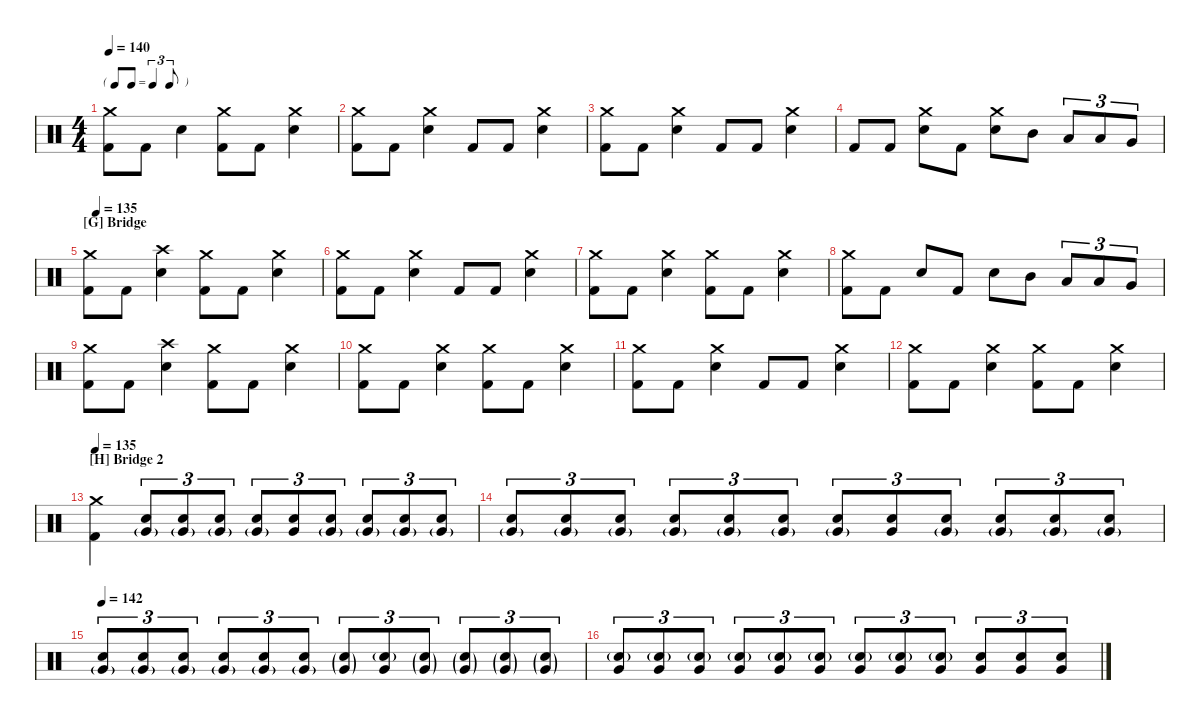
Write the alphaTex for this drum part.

\defaultSystemsLayout 4
\hideDynamics
\bracketExtendMode nobrackets
\singleTrackTrackNamePolicy hidden
\multiTrackTrackNamePolicy hidden
\firstSystemTrackNameMode fullname
\firstSystemTrackNameOrientation horizontal
\otherSystemsTrackNameOrientation horizontal
\track ("Drum" "Drums") {instrument percussion}
\staff {score}
\articulation defaults
\ts (4 4)
\tf triplet8th
\scale
0.186874
\tempo 140
\accidentals auto
\clef neutral
\ottava regular
\simile none
\scale
0.225443
\ks c
("Kick (hit) 2" "Crash medium (hit)").8{dy f beam Down} "Kick (hit) 2".8{beam Down} "Snare (hit) 2".4{beam Down} ("Kick (hit) 2" "Crash medium (hit)").8{beam Down} "Kick (hit) 2".8{beam Down} ("Snare (hit) 2" "Crash medium (hit)").4{beam Down} |
\scale
0.266963
\scale
0.225443 ("Kick (hit) 2" "Crash medium (hit)").8{beam Down} "Kick (hit) 2".8{beam Down} ("Snare (hit) 2" "Crash medium (hit)").4{beam Down} "Kick (hit) 2".8{beam Up} "Kick (hit) 2".8{beam Up} ("Snare (hit) 2" "Crash medium (hit)").4{beam Down} |
\scale
0.279199
\scale
0.225443 ("Kick (hit) 2" "Crash medium (hit)").8{beam Down} "Kick (hit) 2".8{beam Down} ("Snare (hit) 2" "Crash medium (hit)").4{beam Down} "Kick (hit) 2".8{beam Up} "Kick (hit) 2".8{beam Up} ("Snare (hit) 2" "Crash medium (hit)").4{beam Down} |
\scale
0.266963
\scale
0.323671 "Kick (hit) 2".8{beam Up} "Kick (hit) 2".8{beam Up} ("Snare (hit) 2" "Crash medium (hit)").8{beam Down} "Kick (hit) 2".8{beam Down} ("Snare (hit) 2" "Crash medium (hit)").8{beam Down} "Mid Tom (hit)".8{beam Down} "Low Tom (hit)".8{tu (3 2) beam Up} "Low Tom (hit)".8{tu (3 2) beam Up} "Very Low Tom (hit)".8{tu (3 2) beam Up} |
\section ("G" "Bridge")
\scale
0.268041
\tempo (135 0.03125)
\scale
0.225443 ("Kick (hit) 2" "Crash medium (hit)").8{beam Down} "Kick (hit) 2".8{beam Down} ("Snare (hit) 2" "Crash high (hit)").4{beam Down} ("Kick (hit) 2" "Crash medium (hit)").8{beam Down} "Kick (hit) 2".8{beam Down} ("Snare (hit) 2" "Crash medium (hit)").4{beam Down} |
\scale
0.346392
\scale
0.225443 ("Kick (hit) 2" "Crash medium (hit)").8{beam Down} "Kick (hit) 2".8{beam Down} ("Snare (hit) 2" "Crash medium (hit)").4{beam Down} "Kick (hit) 2".8{beam Up} "Kick (hit) 2".8{beam Up} ("Snare (hit) 2" "Crash medium (hit)").4{beam Down} |
\scale
0.25567
\scale
0.225443 ("Kick (hit) 2" "Crash medium (hit)").8{beam Down} "Kick (hit) 2".8{beam Down} ("Snare (hit) 2" "Crash medium (hit)").4{beam Down} ("Kick (hit) 2" "Crash medium (hit)").8{beam Down} "Kick (hit) 2".8{beam Down} ("Snare (hit) 2" "Crash medium (hit)").4{beam Down} |
\scale
0.129897
\scale
0.323671 ("Kick (hit) 2" "Crash medium (hit)").8{beam Down} "Kick (hit) 2".8{beam Down} "Snare (hit) 2".8{beam Up} "Kick (hit) 2".8{beam Up} "Snare (hit) 2".8{beam Down} "Mid Tom (hit)".8{beam Down} "Low Tom (hit)".8{tu (3 2) beam Up} "Low Tom (hit)".8{tu (3 2) beam Up} "Very Low Tom (hit)".8{tu (3 2) beam Up} |
\scale
0.268041
\scale
0.25 ("Kick (hit) 2" "Crash medium (hit)").8{beam Down} "Kick (hit) 2".8{beam Down} ("Snare (hit) 2" "Crash high (hit)").4{beam Down} ("Kick (hit) 2" "Crash medium (hit)").8{beam Down} "Kick (hit) 2".8{beam Down} ("Snare (hit) 2" "Crash medium (hit)").4{beam Down} |
\scale
0.346392
\scale
0.25 ("Kick (hit) 2" "Crash medium (hit)").8{beam Down} "Kick (hit) 2".8{beam Down} ("Snare (hit) 2" "Crash medium (hit)").4{beam Down} ("Kick (hit) 2" "Crash medium (hit)").8{beam Down} "Kick (hit) 2".8{beam Down} ("Snare (hit) 2" "Crash medium (hit)").4{beam Down} |
\scale
0.25567
\scale
0.25 ("Kick (hit) 2" "Crash medium (hit)").8{beam Down} "Kick (hit) 2".8{beam Down} ("Snare (hit) 2" "Crash medium (hit)").4{beam Down} "Kick (hit) 2".8{beam Up} "Kick (hit) 2".8{beam Up} ("Snare (hit) 2" "Crash medium (hit)").4{beam Down} |
\scale
0.129897
\scale
0.25 ("Kick (hit) 2" "Crash medium (hit)").8{beam Down} "Kick (hit) 2".8{beam Down} ("Snare (hit) 2" "Crash medium (hit)").4{beam Down} ("Kick (hit) 2" "Crash medium (hit)").8{beam Down} "Kick (hit) 2".8{beam Down} ("Snare (hit) 2" "Crash medium (hit)").4{beam Down} |
\section ("H" "Bridge 2")
\scale
0.25
\tempo 135
\scale
0.230244 ("Kick (hit) 2" "Crash medium (hit)").4{beam Down} ("Snare (hit) 2" "Very Low Tom (hit)"{g}).8{tu (3 2) dy mp beam Up} ("Snare (hit) 2" "Very Low Tom (hit)"{g}).8{tu (3 2) beam Up} ("Snare (hit) 2" "Very Low Tom (hit)"{g}).8{tu (3 2) beam Up} ("Snare (hit) 2" "Very Low Tom (hit)"{g}).8{tu (3 2) beam Up} ("Snare (hit) 2" "Very Low Tom (hit)").8{tu (3 2) beam Up} ("Snare (hit) 2" "Very Low Tom (hit)"{g}).8{tu (3 2) beam Up} ("Snare (hit) 2" "Very Low Tom (hit)"{g}).8{tu (3 2) beam Up} ("Snare (hit) 2" "Very Low Tom (hit)"{g}).8{tu (3 2) beam Up} ("Snare (hit) 2" "Very Low Tom (hit)"{g}).8{tu (3 2) beam Up} |
\scale
0.25
\scale
0.256585 ("Snare (hit) 2" "Very Low Tom (hit)"{g}).8{tu (3 2) dy mf beam Up} ("Snare (hit) 2" "Very Low Tom (hit)"{g}).8{tu (3 2) beam Up} ("Snare (hit) 2" "Very Low Tom (hit)"{g}).8{tu (3 2) beam Up} ("Snare (hit) 2" "Very Low Tom (hit)"{g}).8{tu (3 2) beam Up} ("Snare (hit) 2" "Very Low Tom (hit)"{g}).8{tu (3 2) beam Up} ("Snare (hit) 2" "Very Low Tom (hit)"{g}).8{tu (3 2) beam Up} ("Snare (hit) 2" "Very Low Tom (hit)"{g}).8{tu (3 2) beam Up} ("Snare (hit) 2" "Very Low Tom (hit)").8{tu (3 2) beam Up} ("Snare (hit) 2" "Very Low Tom (hit)"{g}).8{tu (3 2) beam Up} ("Snare (hit) 2" "Very Low Tom (hit)"{g}).8{tu (3 2) beam Up} ("Snare (hit) 2" "Very Low Tom (hit)"{g}).8{tu (3 2) beam Up} ("Snare (hit) 2" "Very Low Tom (hit)"{g}).8{tu (3 2) beam Up} |
\scale
0.25
\tempo 142
\scale
0.256585 ("Snare (hit) 2" "Very Low Tom (hit)"{g}).8{tu (3 2) beam Up} ("Snare (hit) 2" "Very Low Tom (hit)"{g}).8{tu (3 2) beam Up} ("Snare (hit) 2" "Very Low Tom (hit)"{g}).8{tu (3 2) beam Up} ("Snare (hit) 2" "Very Low Tom (hit)"{g}).8{tu (3 2) beam Up} ("Snare (hit) 2" "Very Low Tom (hit)"{g}).8{tu (3 2) beam Up} ("Snare (hit) 2" "Very Low Tom (hit)"{g}).8{tu (3 2) beam Up} ("Snare (hit) 2"{g} "Very Low Tom (hit)"{g}).8{tu (3 2) dy f beam Up} ("Snare (hit) 2"{g} "Very Low Tom (hit)").8{tu (3 2) beam Up} ("Snare (hit) 2"{g} "Very Low Tom (hit)"{g}).8{tu (3 2) beam Up} ("Snare (hit) 2"{g} "Very Low Tom (hit)"{g}).8{tu (3 2) beam Up} ("Snare (hit) 2"{g} "Very Low Tom (hit)"{g}).8{tu (3 2) beam Up} ("Snare (hit) 2"{g} "Very Low Tom (hit)"{g}).8{tu (3 2) beam Up} |
\scale
0.25
\scale
0.256585 ("Snare (hit) 2"{g} "Very Low Tom (hit)").8{tu (3 2) beam Up} ("Snare (hit) 2"{g} "Very Low Tom (hit)").8{tu (3 2) beam Up} ("Snare (hit) 2"{g} "Very Low Tom (hit)").8{tu (3 2) beam Up} ("Snare (hit) 2"{g} "Very Low Tom (hit)").8{tu (3 2) beam Up} ("Snare (hit) 2"{g} "Very Low Tom (hit)").8{tu (3 2) beam Up} ("Snare (hit) 2"{g} "Very Low Tom (hit)").8{tu (3 2) beam Up} ("Snare (hit) 2"{g} "Very Low Tom (hit)").8{tu (3 2) dy ff beam Up} ("Snare (hit) 2"{g} "Very Low Tom (hit)").8{tu (3 2) beam Up} ("Snare (hit) 2"{g} "Very Low Tom (hit)").8{tu (3 2) beam Up} ("Snare (hit) 2" "Very Low Tom (hit)").8{tu (3 2) beam Up} ("Snare (hit) 2" "Very Low Tom (hit)").8{tu (3 2) beam Up} ("Snare (hit) 2" "Very Low Tom (hit)").8{tu (3 2) beam Up}
